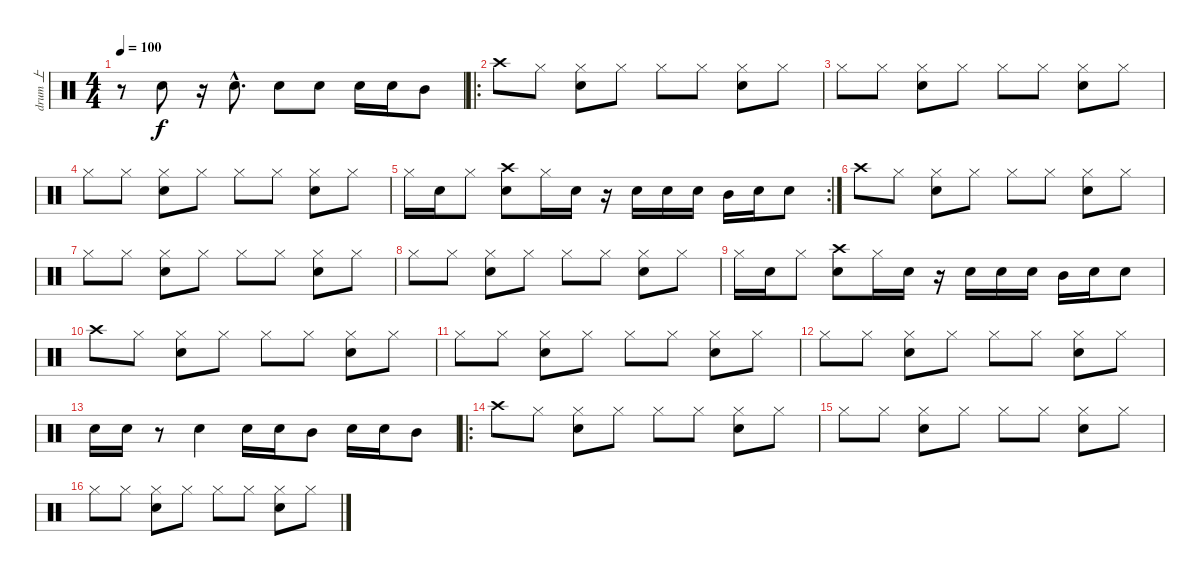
\track ("drum 上" "drum 上") {instrument percussion}
\staff {score}
\articulation defaults
\ts (4 4)
\tempo 100
\clef neutral
\ks c
r.8{dy f} "Snare (hit) 2".8 r.16 "Snare (hit) 2"{hac}.8{d} "Snare (hit) 2".8 "Snare (hit) 2".8 "Snare (hit) 2".16 "Snare (hit) 2".16 "Mid Tom (hit)".8 |
\ro "Crash high (hit)".8 "Hi-Hat (closed)".8
("Hi-Hat (closed)" "Snare (hit) 2").8 "Hi-Hat (closed)".8 "Hi-Hat (closed)".8 "Hi-Hat (closed)".8 ("Hi-Hat (closed)" "Snare (hit) 2").8 "Hi-Hat (closed)".8 |
"Hi-Hat (closed)".8 "Hi-Hat (closed)".8 ("Hi-Hat (closed)" "Snare (hit) 2").8 "Hi-Hat (closed)".8 "Hi-Hat (closed)".8 "Hi-Hat (closed)".8 ("Hi-Hat (closed)" "Snare (hit) 2").8 "Hi-Hat (closed)".8 |
"Hi-Hat (closed)".8 "Hi-Hat (closed)".8 ("Hi-Hat (closed)" "Snare (hit) 2").8 "Hi-Hat (closed)".8 "Hi-Hat (closed)".8 "Hi-Hat (closed)".8 ("Hi-Hat (closed)" "Snare (hit) 2").8 "Hi-Hat (closed)".8 |
\rc 2 "Hi-Hat (closed)".16 "Snare (hit) 2".16 "Hi-Hat (closed)".8
("Crash high (hit)" "Snare (hit) 2").8 "Hi-Hat (closed)".16 "Snare (hit) 2".16 r.16 "Snare (hit) 2".16 "Snare (hit) 2".16 "Snare (hit) 2".16 "Mid Tom (hit)".16 "Snare (hit) 2".16 "Snare (hit) 2".8 |
"Crash high (hit)".8 "Hi-Hat (closed)".8 ("Hi-Hat (closed)" "Snare (hit) 2").8 "Hi-Hat (closed)".8 "Hi-Hat (closed)".8 "Hi-Hat (closed)".8 ("Hi-Hat (closed)" "Snare (hit) 2").8 "Hi-Hat (closed)".8 |
"Hi-Hat (closed)".8 "Hi-Hat (closed)".8 ("Hi-Hat (closed)" "Snare (hit) 2").8 "Hi-Hat (closed)".8 "Hi-Hat (closed)".8 "Hi-Hat (closed)".8 ("Hi-Hat (closed)" "Snare (hit) 2").8 "Hi-Hat (closed)".8 |
"Hi-Hat (closed)".8 "Hi-Hat (closed)".8 ("Hi-Hat (closed)" "Snare (hit) 2").8 "Hi-Hat (closed)".8 "Hi-Hat (closed)".8 "Hi-Hat (closed)".8 ("Hi-Hat (closed)" "Snare (hit) 2").8 "Hi-Hat (closed)".8 |
"Hi-Hat (closed)".16 "Snare (hit) 2".16 "Hi-Hat (closed)".8 ("Crash high (hit)" "Snare (hit) 2").8 "Hi-Hat (closed)".16 "Snare (hit) 2".16 r.16 "Snare (hit) 2".16 "Snare (hit) 2".16 "Snare (hit) 2".16 "Mid Tom (hit)".16 "Snare (hit) 2".16 "Snare (hit) 2".8 |
"Crash high (hit)".8 "Hi-Hat (closed)".8 ("Hi-Hat (closed)" "Snare (hit) 2").8 "Hi-Hat (closed)".8 "Hi-Hat (closed)".8 "Hi-Hat (closed)".8 ("Hi-Hat (closed)" "Snare (hit) 2").8 "Hi-Hat (closed)".8 |
"Hi-Hat (closed)".8 "Hi-Hat (closed)".8 ("Hi-Hat (closed)" "Snare (hit) 2").8 "Hi-Hat (closed)".8 "Hi-Hat (closed)".8 "Hi-Hat (closed)".8 ("Hi-Hat (closed)" "Snare (hit) 2").8 "Hi-Hat (closed)".8 |
"Hi-Hat (closed)".8 "Hi-Hat (closed)".8 ("Hi-Hat (closed)" "Snare (hit) 2").8 "Hi-Hat (closed)".8 "Hi-Hat (closed)".8 "Hi-Hat (closed)".8 ("Hi-Hat (closed)" "Snare (hit) 2").8 "Hi-Hat (closed)".8 |
"Snare (hit) 2".16 "Snare (hit) 2".16 r.8 "Snare (hit) 2".4 "Snare (hit) 2".16 "Snare (hit) 2".16 "Mid Tom (hit)".8 "Snare (hit) 2".16 "Snare (hit) 2".16 "Mid Tom (hit)".8 |
\ro "Crash high (hit)".8 "Hi-Hat (closed)".8
("Hi-Hat (closed)" "Snare (hit) 2").8 "Hi-Hat (closed)".8 "Hi-Hat (closed)".8 "Hi-Hat (closed)".8 ("Hi-Hat (closed)" "Snare (hit) 2").8 "Hi-Hat (closed)".8 |
"Hi-Hat (closed)".8 "Hi-Hat (closed)".8 ("Hi-Hat (closed)" "Snare (hit) 2").8 "Hi-Hat (closed)".8 "Hi-Hat (closed)".8 "Hi-Hat (closed)".8 ("Hi-Hat (closed)" "Snare (hit) 2").8 "Hi-Hat (closed)".8 |
"Hi-Hat (closed)".8 "Hi-Hat (closed)".8 ("Hi-Hat (closed)" "Snare (hit) 2").8 "Hi-Hat (closed)".8 "Hi-Hat (closed)".8 "Hi-Hat (closed)".8 ("Hi-Hat (closed)" "Snare (hit) 2").8 "Hi-Hat (closed)".8
